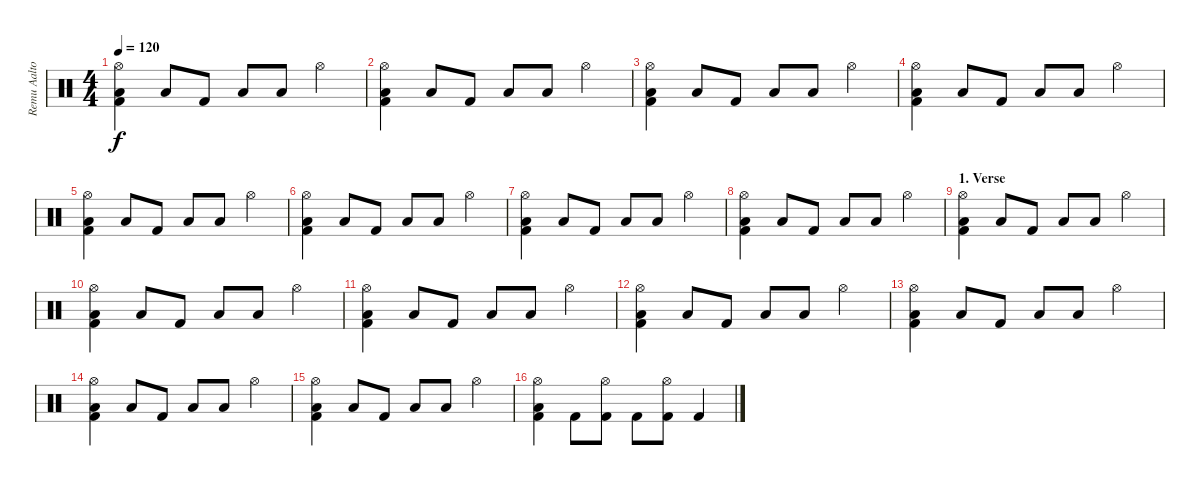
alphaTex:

\track ("Remu Aaltonen" "Remu Aalto") {instrument percussion}
\staff {score}
\articulation defaults
\ts (4 4)
\tempo 120
\clef neutral
\ks c
("Hi-Hat (open)" "Kick (hit) 2" "Low Tom (hit)").4{dy f} "Low Tom (hit)".8 "Kick (hit) 2".8 "Low Tom (hit)".8 "Low Tom (hit)".8 "Hi-Hat (open)".4 |
("Hi-Hat (open)" "Kick (hit) 2" "Low Tom (hit)").4 "Low Tom (hit)".8 "Kick (hit) 2".8 "Low Tom (hit)".8 "Low Tom (hit)".8 "Hi-Hat (open)".4 |
("Hi-Hat (open)" "Kick (hit) 2" "Low Tom (hit)").4 "Low Tom (hit)".8 "Kick (hit) 2".8 "Low Tom (hit)".8 "Low Tom (hit)".8 "Hi-Hat (open)".4 |
("Hi-Hat (open)" "Kick (hit) 2" "Low Tom (hit)").4 "Low Tom (hit)".8 "Kick (hit) 2".8 "Low Tom (hit)".8 "Low Tom (hit)".8 "Hi-Hat (open)".4 |
("Hi-Hat (open)" "Kick (hit) 2" "Low Tom (hit)").4 "Low Tom (hit)".8 "Kick (hit) 2".8 "Low Tom (hit)".8 "Low Tom (hit)".8 "Hi-Hat (open)".4 |
("Hi-Hat (open)" "Kick (hit) 2" "Low Tom (hit)").4 "Low Tom (hit)".8 "Kick (hit) 2".8 "Low Tom (hit)".8 "Low Tom (hit)".8 "Hi-Hat (open)".4 |
("Hi-Hat (open)" "Kick (hit) 2" "Low Tom (hit)").4 "Low Tom (hit)".8 "Kick (hit) 2".8 "Low Tom (hit)".8 "Low Tom (hit)".8 "Hi-Hat (open)".4 |
("Hi-Hat (open)" "Kick (hit) 2" "Low Tom (hit)").4 "Low Tom (hit)".8 "Kick (hit) 2".8 "Low Tom (hit)".8 "Low Tom (hit)".8 "Hi-Hat (open)".4 |
\section ("" "1. Verse")
("Hi-Hat (open)" "Kick (hit) 2" "Low Tom (hit)").4 "Low Tom (hit)".8 "Kick (hit) 2".8 "Low Tom (hit)".8 "Low Tom (hit)".8 "Hi-Hat (open)".4 |
("Hi-Hat (open)" "Kick (hit) 2" "Low Tom (hit)").4 "Low Tom (hit)".8 "Kick (hit) 2".8 "Low Tom (hit)".8 "Low Tom (hit)".8 "Hi-Hat (open)".4 |
("Hi-Hat (open)" "Kick (hit) 2" "Low Tom (hit)").4 "Low Tom (hit)".8 "Kick (hit) 2".8 "Low Tom (hit)".8 "Low Tom (hit)".8 "Hi-Hat (open)".4 |
("Hi-Hat (open)" "Kick (hit) 2" "Low Tom (hit)").4 "Low Tom (hit)".8 "Kick (hit) 2".8 "Low Tom (hit)".8 "Low Tom (hit)".8 "Hi-Hat (open)".4 |
("Hi-Hat (open)" "Kick (hit) 2" "Low Tom (hit)").4 "Low Tom (hit)".8 "Kick (hit) 2".8 "Low Tom (hit)".8 "Low Tom (hit)".8 "Hi-Hat (open)".4 |
("Hi-Hat (open)" "Kick (hit) 2" "Low Tom (hit)").4 "Low Tom (hit)".8 "Kick (hit) 2".8 "Low Tom (hit)".8 "Low Tom (hit)".8 "Hi-Hat (open)".4 |
("Hi-Hat (open)" "Kick (hit) 2" "Low Tom (hit)").4 "Low Tom (hit)".8 "Kick (hit) 2".8 "Low Tom (hit)".8 "Low Tom (hit)".8 "Hi-Hat (open)".4 |
("Hi-Hat (open)" "Kick (hit) 2" "Low Tom (hit)").4 "Kick (hit) 2".8 ("Kick (hit) 2" "Hi-Hat (open)").8 "Kick (hit) 2".8 ("Kick (hit) 2" "Hi-Hat (open)").8 "Kick (hit) 2".4
